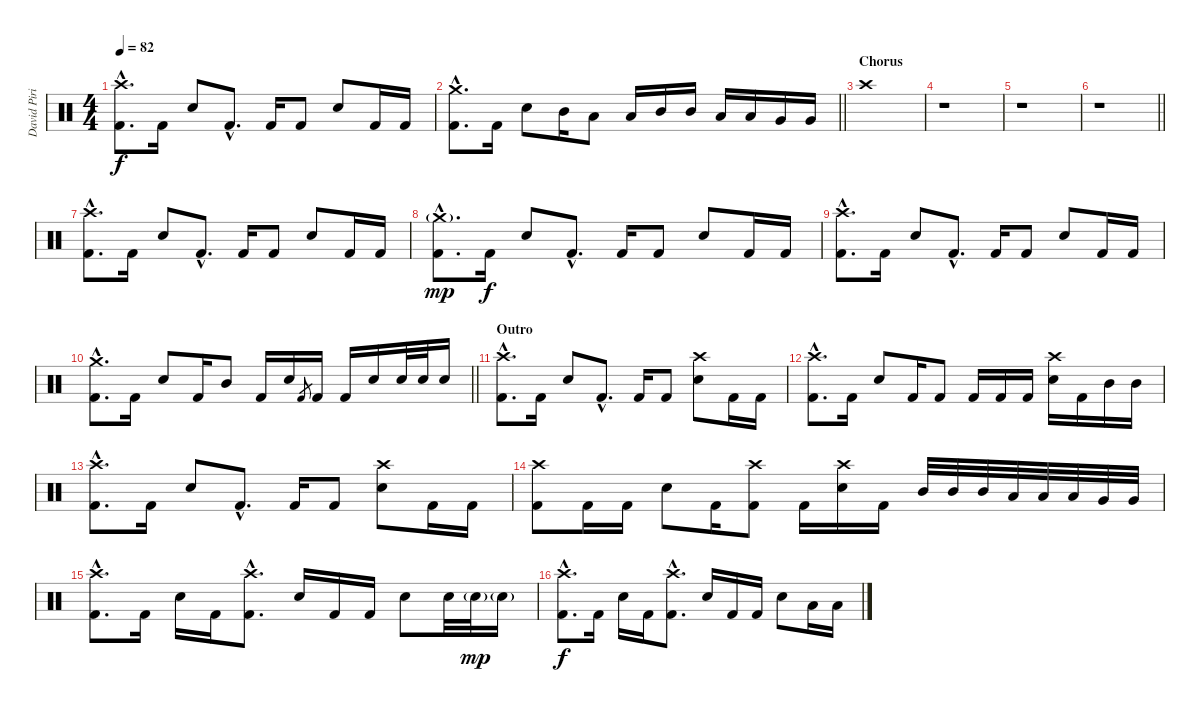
\track ("David Piribauer (Drums)" "David Piri") {instrument percussion}
\staff {score}
\articulation defaults
\ts (4 4)
\tempo 82
\clef neutral
\ks c
("Crash high (hit)"{hac} "Kick (hit) 2"{hac}).8{d dy f} "Kick (hit) 2".16 "Electric Snare (hit)".8 "Kick (hit) 2"{hac}.8{d} "Kick (hit) 2".16 "Kick (hit) 2".8 "Electric Snare (hit)".8 "Kick (hit) 2".16 "Kick (hit) 2".16 |
\barLineRight lightlight
("Crash medium (hit)"{hac} "Kick (hit) 2"{hac}).8{d} "Kick (hit) 2".16 "Electric Snare (hit)".8 "Mid Tom (hit)".16 "Low Tom (hit)".8 "Low Tom (hit)".16 "Mid Tom (hit)".16 "Mid Tom (hit)".16 "Low Tom (hit)".16 "Low Tom (hit)".16 "Very Low Tom (hit)".16 "Very Low Tom (hit)".16 |
\section ("" "Chorus")
"Crash high (hit)".1 |
r.1 |
r.1 |
\barLineRight lightlight
r.1 |
("Crash high (hit)"{hac} "Kick (hit) 2"{hac}).8{d} "Kick (hit) 2".16 "Electric Snare (hit)".8 "Kick (hit) 2"{hac}.8{d} "Kick (hit) 2".16 "Kick (hit) 2".8 "Electric Snare (hit)".8 "Kick (hit) 2".16 "Kick (hit) 2".16 |
("Crash medium (hit)"{g hac} "Kick (hit) 2"{hac}).8{d dy mp} "Kick (hit) 2".16{dy f} "Electric Snare (hit)".8 "Kick (hit) 2"{hac}.8{d} "Kick (hit) 2".16 "Kick (hit) 2".8 "Electric Snare (hit)".8 "Kick (hit) 2".16 "Kick (hit) 2".16 |
("Crash high (hit)"{hac} "Kick (hit) 2"{hac}).8{d} "Kick (hit) 2".16 "Electric Snare (hit)".8 "Kick (hit) 2"{hac}.8{d} "Kick (hit) 2".16 "Kick (hit) 2".8 "Electric Snare (hit)".8 "Kick (hit) 2".16 "Kick (hit) 2".16 |
\barLineRight lightlight
("Crash medium (hit)"{hac} "Kick (hit) 2"{hac}).8{d} "Kick (hit) 2".16 "Electric Snare (hit)".8 "Kick (hit) 2".16 "Mid Tom (hit)".8 "Kick (hit) 2".16 "Electric Snare (hit)".16 "Kick (hit) 2".8{gr} "Kick (hit) 2".16 "Kick (hit) 2".16 "Electric Snare (hit)".16 "Electric Snare (hit)".32 "Electric Snare (hit)".32 "Electric Snare (hit)".16 |
\section ("" "Outro")
("Crash high (hit)"{hac} "Kick (hit) 2"{hac}).8{d} "Kick (hit) 2".16 "Electric Snare (hit)".8 "Kick (hit) 2"{hac}.8{d} "Kick (hit) 2".16 "Kick (hit) 2".8 ("Crash high (hit)" "Electric Snare (hit)").8 "Kick (hit) 2".16 "Kick (hit) 2".16 |
("Crash high (hit)"{hac} "Kick (hit) 2"{hac}).8{d} "Kick (hit) 2".16 "Electric Snare (hit)".8 "Kick (hit) 2".16 "Kick (hit) 2".8 "Kick (hit) 2".16 "Kick (hit) 2".16 "Kick (hit) 2".16 ("Crash high (hit)" "Electric Snare (hit)").16 "Kick (hit) 2".16 "Mid Tom (hit)".16 "Mid Tom (hit)".16 |
("Crash high (hit)"{hac} "Kick (hit) 2"{hac}).8{d} "Kick (hit) 2".16 "Electric Snare (hit)".8 "Kick (hit) 2"{hac}.8{d} "Kick (hit) 2".16 "Kick (hit) 2".8 ("Crash high (hit)" "Electric Snare (hit)").8 "Kick (hit) 2".16 "Kick (hit) 2".16 |
("Crash high (hit)" "Kick (hit) 2").8 "Kick (hit) 2".16 "Kick (hit) 2".16 "Electric Snare (hit)".8 "Kick (hit) 2".16 ("Crash high (hit)" "Kick (hit) 2").8 "Kick (hit) 2".16 ("Crash high (hit)" "Electric Snare (hit)").16 "Kick (hit) 2".16 "Mid Tom (hit)".32 "Mid Tom (hit)".32 "Mid Tom (hit)".32 "Low Tom (hit)".32 "Low Tom (hit)".32 "Low Tom (hit)".32 "Very Low Tom (hit)".32 "Very Low Tom (hit)".32 |
("Crash high (hit)"{hac} "Kick (hit) 2"{hac}).8{d} "Kick (hit) 2".16 "Electric Snare (hit)".16 "Kick (hit) 2".16 ("Crash high (hit)"{hac} "Kick (hit) 2"{hac}).8{d} "Electric Snare (hit)".16 "Kick (hit) 2".16 "Kick (hit) 2".16 "Electric Snare (hit)".8 "Electric Snare (hit)".32 "Electric Snare (hit)"{g}.32{dy mp} "Electric Snare (hit)"{g}.16 |
("Crash high (hit)"{hac} "Kick (hit) 2"{hac}).8{d dy f} "Kick (hit) 2".16 "Electric Snare (hit)".16 "Kick (hit) 2".16 ("Crash high (hit)"{hac} "Kick (hit) 2"{hac}).8{d} "Electric Snare (hit)".16 "Kick (hit) 2".16 "Kick (hit) 2".16 "Electric Snare (hit)".8 "Low Tom (hit)".16 "Low Tom (hit)".16
